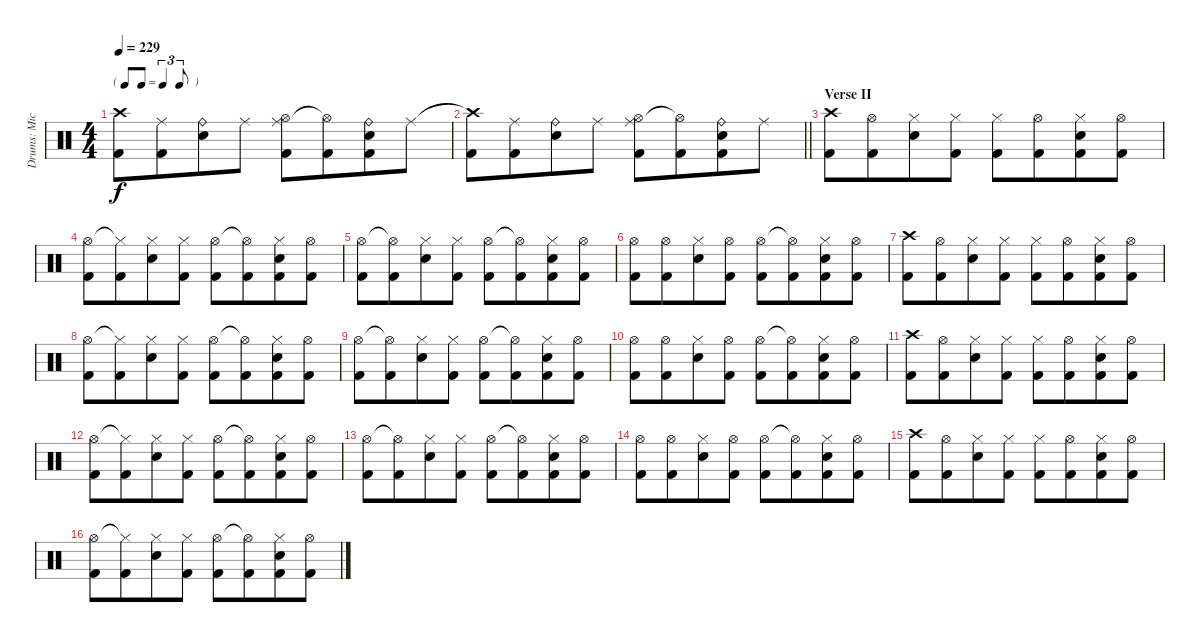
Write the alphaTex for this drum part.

\track ("Drums: Mick" "Drums: Mic") {instrument percussion}
\staff {score}
\articulation defaults
\ts (4 4)
\tf triplet8th
\tempo 229
\clef neutral
\ks c
("Crash high (hit)"{t} "Kick (hit) 2").8{dy f} ("Ride (middle)" "Kick (hit) 2").8{beam merge} ("Ride (bell)" "Snare (hit) 2").8 "Ride (middle)".8 ("Ride (middle)" "Hi-Hat (open)" "Kick (hit) 2").8 ("Hi-Hat (open)"{t} "Kick (hit) 2").8{beam merge} ("Ride (bell)" "Snare (hit) 2" "Kick (hit) 2").8 "Ride (middle)".8 |
\barLineRight lightlight
("Crash high (hit)"{t} "Kick (hit) 2").8 ("Ride (middle)" "Kick (hit) 2").8{beam merge} ("Ride (bell)" "Snare (hit) 2").8 "Ride (middle)".8 ("Ride (middle)" "Hi-Hat (open)" "Kick (hit) 2").8 ("Hi-Hat (open)"{t} "Kick (hit) 2").8{beam merge} ("Ride (bell)" "Snare (hit) 2" "Kick (hit) 2").8 "Ride (middle)".8 |
\section ("" "Verse II")
("Crash high (hit)" "Kick (hit) 2").8 ("Hi-Hat (open)" "Kick (hit) 2").8{beam merge} ("Hi-Hat (closed)" "Snare (hit) 2").8 ("Hi-Hat (closed)" "Kick (hit) 2").8 ("Hi-Hat (closed)" "Kick (hit) 2").8 ("Hi-Hat (open)" "Kick (hit) 2").8{beam merge} ("Hi-Hat (closed)" "Snare (hit) 2" "Kick (hit) 2").8 ("Hi-Hat (open)" "Kick (hit) 2").8 |
("Hi-Hat (open)" "Kick (hit) 2").8 ("Hi-Hat (closed)"{t} "Kick (hit) 2").8{beam merge} ("Hi-Hat (closed)" "Snare (hit) 2").8 ("Hi-Hat (closed)" "Kick (hit) 2").8 ("Hi-Hat (open)" "Kick (hit) 2").8 ("Hi-Hat (open)"{t} "Kick (hit) 2").8{beam merge} ("Hi-Hat (closed)" "Snare (hit) 2" "Kick (hit) 2").8 ("Hi-Hat (open)" "Kick (hit) 2").8 |
("Hi-Hat (open)" "Kick (hit) 2").8 ("Hi-Hat (open)"{t} "Kick (hit) 2").8{beam merge} ("Hi-Hat (closed)" "Snare (hit) 2").8 ("Hi-Hat (closed)" "Kick (hit) 2").8 ("Hi-Hat (open)" "Kick (hit) 2").8 ("Hi-Hat (open)"{t} "Kick (hit) 2").8{beam merge} ("Hi-Hat (closed)" "Snare (hit) 2" "Kick (hit) 2").8 ("Hi-Hat (open)" "Kick (hit) 2").8 |
("Hi-Hat (open)" "Kick (hit) 2").8 ("Hi-Hat (open)" "Kick (hit) 2").8{beam merge} ("Hi-Hat (closed)" "Snare (hit) 2").8 ("Hi-Hat (open)" "Kick (hit) 2").8 ("Hi-Hat (open)" "Kick (hit) 2").8 ("Hi-Hat (open)"{t} "Kick (hit) 2").8{beam merge} ("Hi-Hat (closed)" "Snare (hit) 2" "Kick (hit) 2").8 ("Hi-Hat (open)" "Kick (hit) 2").8 |
("Crash high (hit)" "Kick (hit) 2").8 ("Hi-Hat (open)" "Kick (hit) 2").8{beam merge} ("Hi-Hat (closed)" "Snare (hit) 2").8 ("Hi-Hat (closed)" "Kick (hit) 2").8 ("Hi-Hat (closed)" "Kick (hit) 2").8 ("Hi-Hat (open)" "Kick (hit) 2").8{beam merge} ("Hi-Hat (closed)" "Snare (hit) 2" "Kick (hit) 2").8 ("Hi-Hat (open)" "Kick (hit) 2").8 |
("Hi-Hat (open)" "Kick (hit) 2").8 ("Hi-Hat (closed)"{t} "Kick (hit) 2").8{beam merge} ("Hi-Hat (closed)" "Snare (hit) 2").8 ("Hi-Hat (closed)" "Kick (hit) 2").8 ("Hi-Hat (open)" "Kick (hit) 2").8 ("Hi-Hat (open)"{t} "Kick (hit) 2").8{beam merge} ("Hi-Hat (closed)" "Snare (hit) 2" "Kick (hit) 2").8 ("Hi-Hat (open)" "Kick (hit) 2").8 |
("Hi-Hat (open)" "Kick (hit) 2").8 ("Hi-Hat (open)"{t} "Kick (hit) 2").8{beam merge} ("Hi-Hat (closed)" "Snare (hit) 2").8 ("Hi-Hat (closed)" "Kick (hit) 2").8 ("Hi-Hat (open)" "Kick (hit) 2").8 ("Hi-Hat (open)"{t} "Kick (hit) 2").8{beam merge} ("Hi-Hat (closed)" "Snare (hit) 2" "Kick (hit) 2").8 ("Hi-Hat (open)" "Kick (hit) 2").8 |
("Hi-Hat (open)" "Kick (hit) 2").8 ("Hi-Hat (open)" "Kick (hit) 2").8{beam merge} ("Hi-Hat (closed)" "Snare (hit) 2").8 ("Hi-Hat (open)" "Kick (hit) 2").8 ("Hi-Hat (open)" "Kick (hit) 2").8 ("Hi-Hat (open)"{t} "Kick (hit) 2").8{beam merge} ("Hi-Hat (closed)" "Snare (hit) 2" "Kick (hit) 2").8 ("Hi-Hat (open)" "Kick (hit) 2").8 |
("Crash high (hit)" "Kick (hit) 2").8 ("Hi-Hat (open)" "Kick (hit) 2").8{beam merge} ("Hi-Hat (closed)" "Snare (hit) 2").8 ("Hi-Hat (closed)" "Kick (hit) 2").8 ("Hi-Hat (closed)" "Kick (hit) 2").8 ("Hi-Hat (open)" "Kick (hit) 2").8{beam merge} ("Hi-Hat (closed)" "Snare (hit) 2" "Kick (hit) 2").8 ("Hi-Hat (open)" "Kick (hit) 2").8 |
("Hi-Hat (open)" "Kick (hit) 2").8 ("Hi-Hat (closed)"{t} "Kick (hit) 2").8{beam merge} ("Hi-Hat (closed)" "Snare (hit) 2").8 ("Hi-Hat (closed)" "Kick (hit) 2").8 ("Hi-Hat (open)" "Kick (hit) 2").8 ("Hi-Hat (open)"{t} "Kick (hit) 2").8{beam merge} ("Hi-Hat (closed)" "Snare (hit) 2" "Kick (hit) 2").8 ("Hi-Hat (open)" "Kick (hit) 2").8 |
("Hi-Hat (open)" "Kick (hit) 2").8 ("Hi-Hat (open)"{t} "Kick (hit) 2").8{beam merge} ("Hi-Hat (closed)" "Snare (hit) 2").8 ("Hi-Hat (closed)" "Kick (hit) 2").8 ("Hi-Hat (open)" "Kick (hit) 2").8 ("Hi-Hat (open)"{t} "Kick (hit) 2").8{beam merge} ("Hi-Hat (closed)" "Snare (hit) 2" "Kick (hit) 2").8 ("Hi-Hat (open)" "Kick (hit) 2").8 |
("Hi-Hat (open)" "Kick (hit) 2").8 ("Hi-Hat (open)" "Kick (hit) 2").8{beam merge} ("Hi-Hat (closed)" "Snare (hit) 2").8 ("Hi-Hat (open)" "Kick (hit) 2").8 ("Hi-Hat (open)" "Kick (hit) 2").8 ("Hi-Hat (open)"{t} "Kick (hit) 2").8{beam merge} ("Hi-Hat (closed)" "Snare (hit) 2" "Kick (hit) 2").8 ("Hi-Hat (open)" "Kick (hit) 2").8 |
("Crash high (hit)" "Kick (hit) 2").8 ("Hi-Hat (open)" "Kick (hit) 2").8{beam merge} ("Hi-Hat (closed)" "Snare (hit) 2").8 ("Hi-Hat (closed)" "Kick (hit) 2").8 ("Hi-Hat (closed)" "Kick (hit) 2").8 ("Hi-Hat (open)" "Kick (hit) 2").8{beam merge} ("Hi-Hat (closed)" "Snare (hit) 2" "Kick (hit) 2").8 ("Hi-Hat (open)" "Kick (hit) 2").8 |
("Hi-Hat (open)" "Kick (hit) 2").8 ("Hi-Hat (closed)"{t} "Kick (hit) 2").8{beam merge} ("Hi-Hat (closed)" "Snare (hit) 2").8 ("Hi-Hat (closed)" "Kick (hit) 2").8 ("Hi-Hat (open)" "Kick (hit) 2").8 ("Hi-Hat (open)"{t} "Kick (hit) 2").8{beam merge} ("Hi-Hat (closed)" "Snare (hit) 2" "Kick (hit) 2").8 ("Hi-Hat (open)" "Kick (hit) 2").8
